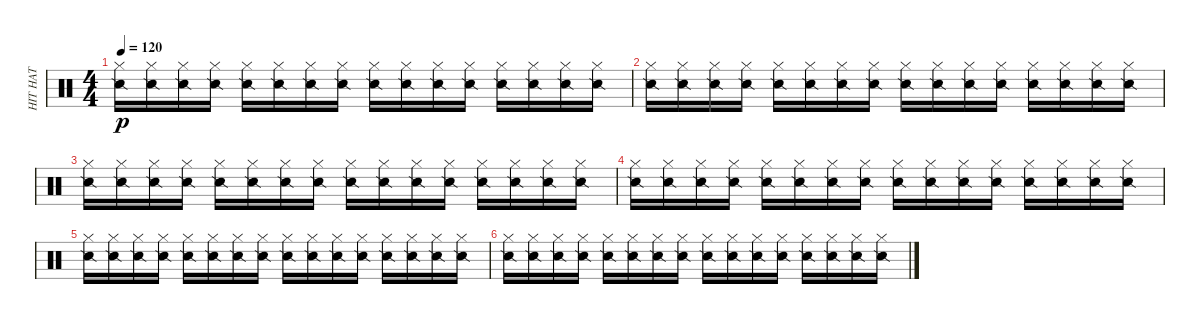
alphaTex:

\track ("HIT HAT" "HIT HAT") {instrument percussion}
\staff {score}
\articulation defaults
\ts (4 4)
\tempo 120
\clef neutral
\ks c
("Hi-Hat (closed)" "Snare (side stick) 2").16{dy p} ("Hi-Hat (closed)" "Snare (side stick) 2").16 ("Hi-Hat (closed)" "Snare (side stick) 2").16 ("Hi-Hat (closed)" "Snare (side stick) 2").16 ("Hi-Hat (closed)" "Snare (side stick) 2").16 ("Hi-Hat (closed)" "Snare (side stick) 2").16 ("Hi-Hat (closed)" "Snare (side stick) 2").16 ("Hi-Hat (closed)" "Snare (side stick) 2").16 ("Hi-Hat (closed)" "Snare (side stick) 2").16 ("Hi-Hat (closed)" "Snare (side stick) 2").16 ("Hi-Hat (closed)" "Snare (side stick) 2").16 ("Hi-Hat (closed)" "Snare (side stick) 2").16 ("Hi-Hat (closed)" "Snare (side stick) 2").16 ("Hi-Hat (closed)" "Snare (side stick) 2").16 ("Hi-Hat (closed)" "Snare (side stick) 2").16 ("Hi-Hat (closed)" "Snare (side stick) 2").16 |
("Hi-Hat (closed)" "Snare (side stick) 2").16 ("Hi-Hat (closed)" "Snare (side stick) 2").16 ("Hi-Hat (closed)" "Snare (side stick) 2").16 ("Hi-Hat (closed)" "Snare (side stick) 2").16 ("Hi-Hat (closed)" "Snare (side stick) 2").16 ("Hi-Hat (closed)" "Snare (side stick) 2").16 ("Hi-Hat (closed)" "Snare (side stick) 2").16 ("Hi-Hat (closed)" "Snare (side stick) 2").16 ("Hi-Hat (closed)" "Snare (side stick) 2").16 ("Hi-Hat (closed)" "Snare (side stick) 2").16 ("Hi-Hat (closed)" "Snare (side stick) 2").16 ("Hi-Hat (closed)" "Snare (side stick) 2").16 ("Hi-Hat (closed)" "Snare (side stick) 2").16 ("Hi-Hat (closed)" "Snare (side stick) 2").16 ("Hi-Hat (closed)" "Snare (side stick) 2").16 ("Hi-Hat (closed)" "Snare (side stick) 2").16 |
("Hi-Hat (closed)" "Snare (side stick) 2").16 ("Hi-Hat (closed)" "Snare (side stick) 2").16 ("Hi-Hat (closed)" "Snare (side stick) 2").16 ("Hi-Hat (closed)" "Snare (side stick) 2").16 ("Hi-Hat (closed)" "Snare (side stick) 2").16 ("Hi-Hat (closed)" "Snare (side stick) 2").16 ("Hi-Hat (closed)" "Snare (side stick) 2").16 ("Hi-Hat (closed)" "Snare (side stick) 2").16 ("Hi-Hat (closed)" "Snare (side stick) 2").16 ("Hi-Hat (closed)" "Snare (side stick) 2").16 ("Hi-Hat (closed)" "Snare (side stick) 2").16 ("Hi-Hat (closed)" "Snare (side stick) 2").16 ("Hi-Hat (closed)" "Snare (side stick) 2").16 ("Hi-Hat (closed)" "Snare (side stick) 2").16 ("Hi-Hat (closed)" "Snare (side stick) 2").16 ("Hi-Hat (closed)" "Snare (side stick) 2").16 |
("Hi-Hat (closed)" "Snare (side stick) 2").16 ("Hi-Hat (closed)" "Snare (side stick) 2").16 ("Hi-Hat (closed)" "Snare (side stick) 2").16 ("Hi-Hat (closed)" "Snare (side stick) 2").16 ("Hi-Hat (closed)" "Snare (side stick) 2").16 ("Hi-Hat (closed)" "Snare (side stick) 2").16 ("Hi-Hat (closed)" "Snare (side stick) 2").16 ("Hi-Hat (closed)" "Snare (side stick) 2").16 ("Hi-Hat (closed)" "Snare (side stick) 2").16 ("Hi-Hat (closed)" "Snare (side stick) 2").16 ("Hi-Hat (closed)" "Snare (side stick) 2").16 ("Hi-Hat (closed)" "Snare (side stick) 2").16 ("Hi-Hat (closed)" "Snare (side stick) 2").16 ("Hi-Hat (closed)" "Snare (side stick) 2").16 ("Hi-Hat (closed)" "Snare (side stick) 2").16 ("Hi-Hat (closed)" "Snare (side stick) 2").16 |
("Hi-Hat (closed)" "Snare (side stick) 2").16 ("Hi-Hat (closed)" "Snare (side stick) 2").16 ("Hi-Hat (closed)" "Snare (side stick) 2").16 ("Hi-Hat (closed)" "Snare (side stick) 2").16 ("Hi-Hat (closed)" "Snare (side stick) 2").16 ("Hi-Hat (closed)" "Snare (side stick) 2").16 ("Hi-Hat (closed)" "Snare (side stick) 2").16 ("Hi-Hat (closed)" "Snare (side stick) 2").16 ("Hi-Hat (closed)" "Snare (side stick) 2").16 ("Hi-Hat (closed)" "Snare (side stick) 2").16 ("Hi-Hat (closed)" "Snare (side stick) 2").16 ("Hi-Hat (closed)" "Snare (side stick) 2").16 ("Hi-Hat (closed)" "Snare (side stick) 2").16 ("Hi-Hat (closed)" "Snare (side stick) 2").16 ("Hi-Hat (closed)" "Snare (side stick) 2").16 ("Hi-Hat (closed)" "Snare (side stick) 2").16 |
("Hi-Hat (closed)" "Snare (side stick) 2").16 ("Hi-Hat (closed)" "Snare (side stick) 2").16 ("Hi-Hat (closed)" "Snare (side stick) 2").16 ("Hi-Hat (closed)" "Snare (side stick) 2").16 ("Hi-Hat (closed)" "Snare (side stick) 2").16 ("Hi-Hat (closed)" "Snare (side stick) 2").16 ("Hi-Hat (closed)" "Snare (side stick) 2").16 ("Hi-Hat (closed)" "Snare (side stick) 2").16 ("Hi-Hat (closed)" "Snare (side stick) 2").16 ("Hi-Hat (closed)" "Snare (side stick) 2").16 ("Hi-Hat (closed)" "Snare (side stick) 2").16 ("Hi-Hat (closed)" "Snare (side stick) 2").16 ("Hi-Hat (closed)" "Snare (side stick) 2").16 ("Hi-Hat (closed)" "Snare (side stick) 2").16 ("Hi-Hat (closed)" "Snare (side stick) 2").16 ("Hi-Hat (closed)" "Snare (side stick) 2").16
